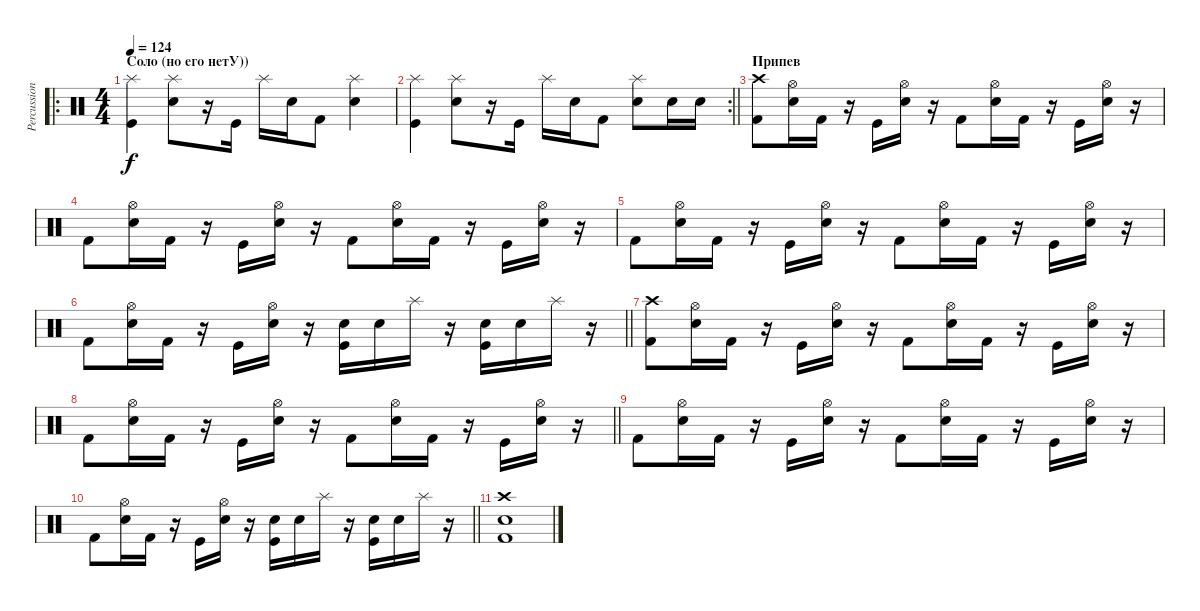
\track ("Percussion" "Percussion") {instrument percussion}
\staff {score}
\articulation defaults
\ro
\ts (4 4)
\section ("" "Соло (но его нетУ))")
\tempo 124
\clef neutral
\ks c
("Splash (hit)" "Kick (hit)").4{dy f} ("Splash (hit)" "Snare (hit) 2").8 r.16 "Kick (hit)".16 "Splash (hit)".16 "Electric Snare (hit)".16 "Kick (hit) 2".8 ("Splash (hit)" "Snare (hit) 2").4 |
\rc 2
\barLineRight lightlight
("Splash (hit)" "Kick (hit)").4 ("Splash (hit)" "Snare (hit) 2").8 r.16 "Kick (hit)".16 "Splash (hit)".16 "Electric Snare (hit)".16 "Kick (hit) 2".8 ("Splash (hit)" "Electric Snare (hit)").8 "Snare (hit) 2".16 "Snare (hit) 2".16 |
\section ("" "Припев")
("Crash high (hit)" "Kick (hit) 2").8 ("Hi-Hat (open)" "Snare (hit) 2").16 "Kick (hit) 2".16 r.16 "Kick (hit)".16 ("Hi-Hat (open)" "Snare (hit) 2").16 r.16 "Kick (hit) 2".8 ("Hi-Hat (open)" "Snare (hit) 2").16 "Kick (hit) 2".16 r.16 "Kick (hit)".16 ("Hi-Hat (open)" "Snare (hit) 2").16 r.16 |
"Kick (hit) 2".8 ("Hi-Hat (open)" "Snare (hit) 2").16 "Kick (hit) 2".16 r.16 "Kick (hit)".16 ("Hi-Hat (open)" "Snare (hit) 2").16 r.16 "Kick (hit) 2".8 ("Hi-Hat (open)" "Snare (hit) 2").16 "Kick (hit) 2".16 r.16 "Kick (hit)".16 ("Hi-Hat (open)" "Snare (hit) 2").16 r.16 |
"Kick (hit) 2".8 ("Hi-Hat (open)" "Snare (hit) 2").16 "Kick (hit) 2".16 r.16 "Kick (hit)".16 ("Hi-Hat (open)" "Snare (hit) 2").16 r.16 "Kick (hit) 2".8 ("Hi-Hat (open)" "Snare (hit) 2").16 "Kick (hit) 2".16 r.16 "Kick (hit)".16 ("Hi-Hat (open)" "Snare (hit) 2").16 r.16 |
\barLineRight lightlight "Kick (hit) 2".8
("Hi-Hat (open)" "Snare (hit) 2").16 "Kick (hit) 2".16 r.16 "Kick (hit)".16 ("Hi-Hat (open)" "Snare (hit) 2").16 r.16 ("Electric Snare (hit)" "Kick (hit)").16 "Electric Snare (hit)".16 "Splash (hit)".16 r.16 ("Snare (hit) 2" "Kick (hit)").16 "Snare (hit) 2".16 "Splash (hit)".16 r.16 |
\section ("" "")
("Crash high (hit)" "Kick (hit) 2").8 ("Hi-Hat (open)" "Snare (hit) 2").16 "Kick (hit) 2".16 r.16 "Kick (hit)".16 ("Hi-Hat (open)" "Snare (hit) 2").16 r.16 "Kick (hit) 2".8 ("Hi-Hat (open)" "Snare (hit) 2").16 "Kick (hit) 2".16 r.16 "Kick (hit)".16 ("Hi-Hat (open)" "Snare (hit) 2").16 r.16 |
\barLineRight lightlight "Kick (hit) 2".8
("Hi-Hat (open)" "Snare (hit) 2").16 "Kick (hit) 2".16 r.16 "Kick (hit)".16 ("Hi-Hat (open)" "Snare (hit) 2").16 r.16 "Kick (hit) 2".8 ("Hi-Hat (open)" "Snare (hit) 2").16 "Kick (hit) 2".16 r.16 "Kick (hit)".16 ("Hi-Hat (open)" "Snare (hit) 2").16 r.16 |
"Kick (hit) 2".8 ("Hi-Hat (open)" "Snare (hit) 2").16 "Kick (hit) 2".16 r.16 "Kick (hit)".16 ("Hi-Hat (open)" "Snare (hit) 2").16 r.16 "Kick (hit) 2".8 ("Hi-Hat (open)" "Snare (hit) 2").16 "Kick (hit) 2".16 r.16 "Kick (hit)".16 ("Hi-Hat (open)" "Snare (hit) 2").16 r.16 |
\barLineRight lightlight "Kick (hit) 2".8
("Hi-Hat (open)" "Snare (hit) 2").16 "Kick (hit) 2".16 r.16 "Kick (hit)".16 ("Hi-Hat (open)" "Snare (hit) 2").16 r.16 ("Electric Snare (hit)" "Kick (hit)").16 "Electric Snare (hit)".16 "Splash (hit)".16 r.16 ("Snare (hit) 2" "Kick (hit)").16 "Snare (hit) 2".16 "Splash (hit)".16 r.16 |
("Crash high (hit)" "Snare (hit) 2" "Kick (hit) 2").1
